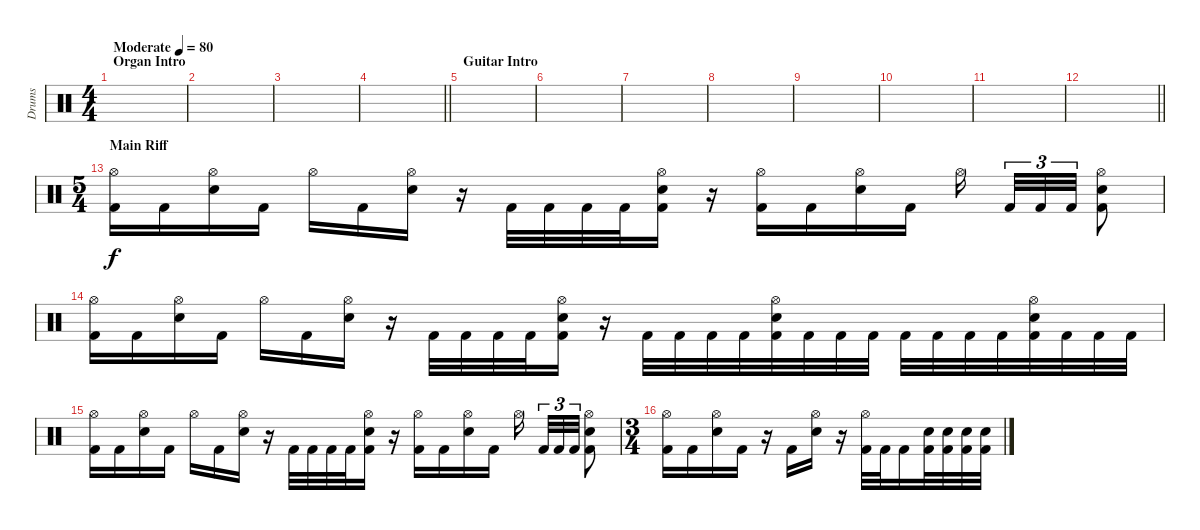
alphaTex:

\track ("Drums" "Drums") {instrument percussion}
\staff {score}
\articulation defaults
\ts (4 4)
\section ("" "Organ Intro")
\tempo (80 "Moderate")
\clef neutral
\ks c
|
|
|
\barLineRight lightlight
|
\section ("" "Guitar Intro")
|
|
|
|
|
|
|
\barLineRight lightlight
|
\ts (5 4)
\section ("" "Main Riff")
("Hi-Hat (open)" "Kick (hit) 2").16 "Kick (hit) 2".16 ("Hi-Hat (open)" "Electric Snare (hit)").16 "Kick (hit) 2".16 "Hi-Hat (open)".16 "Kick (hit) 2".16 ("Hi-Hat (open)" "Electric Snare (hit)").16 r.16 "Kick (hit) 2".32 "Kick (hit) 2".32 "Kick (hit) 2".32 "Kick (hit) 2".32 ("Hi-Hat (open)" "Electric Snare (hit)" "Kick (hit) 2").16 r.16 ("Hi-Hat (open)" "Kick (hit) 2").16 "Kick (hit) 2".16 ("Hi-Hat (open)" "Electric Snare (hit)").16 "Kick (hit) 2".16 "Hi-Hat (open)".16{beam splitsecondary} "Kick (hit) 2".32{tu (3 2)} "Kick (hit) 2".32{tu (3 2)} "Kick (hit) 2".32{tu (3 2)} ("Hi-Hat (open)" "Electric Snare (hit)" "Kick (hit) 2").8 |
("Hi-Hat (open)" "Kick (hit) 2").16 "Kick (hit) 2".16 ("Hi-Hat (open)" "Electric Snare (hit)").16 "Kick (hit) 2".16 "Hi-Hat (open)".16 "Kick (hit) 2".16 ("Hi-Hat (open)" "Electric Snare (hit)").16 r.16 "Kick (hit) 2".32 "Kick (hit) 2".32 "Kick (hit) 2".32 "Kick (hit) 2".32 ("Hi-Hat (open)" "Electric Snare (hit)" "Kick (hit) 2").16 r.16 "Kick (hit) 2".32 "Kick (hit) 2".32 "Kick (hit) 2".32 "Kick (hit) 2".32 ("Hi-Hat (open)" "Electric Snare (hit)" "Kick (hit) 2").32 "Kick (hit) 2".32 "Kick (hit) 2".32 "Kick (hit) 2".32 "Kick (hit) 2".32 "Kick (hit) 2".32 "Kick (hit) 2".32 "Kick (hit) 2".32 ("Hi-Hat (open)" "Electric Snare (hit)" "Kick (hit) 2").32 "Kick (hit) 2".32 "Kick (hit) 2".32 "Kick (hit) 2".32 |
("Hi-Hat (open)" "Kick (hit) 2").16 "Kick (hit) 2".16 ("Hi-Hat (open)" "Electric Snare (hit)").16 "Kick (hit) 2".16 "Hi-Hat (open)".16 "Kick (hit) 2".16 ("Hi-Hat (open)" "Electric Snare (hit)").16 r.16 "Kick (hit) 2".32 "Kick (hit) 2".32 "Kick (hit) 2".32 "Kick (hit) 2".32 ("Hi-Hat (open)" "Electric Snare (hit)" "Kick (hit) 2").16 r.16 ("Hi-Hat (open)" "Kick (hit) 2").16 "Kick (hit) 2".16 ("Hi-Hat (open)" "Electric Snare (hit)").16 "Kick (hit) 2".16 "Hi-Hat (open)".16{beam splitsecondary} "Kick (hit) 2".32{tu (3 2)} "Kick (hit) 2".32{tu (3 2)} "Kick (hit) 2".32{tu (3 2)} ("Hi-Hat (open)" "Electric Snare (hit)" "Kick (hit) 2").8 |
\ts (3 4)
("Hi-Hat (open)" "Kick (hit) 2").16 "Kick (hit) 2".16 ("Hi-Hat (open)" "Electric Snare (hit)").16 "Kick (hit) 2".16 r.16 "Kick (hit) 2".16 ("Hi-Hat (open)" "Electric Snare (hit)").16 r.16 ("Hi-Hat (open)" "Kick (hit) 2").32 "Kick (hit) 2".32 "Kick (hit) 2".16 ("Electric Snare (hit)" "Kick (hit) 2").32 ("Electric Snare (hit)" "Kick (hit) 2").32 ("Electric Snare (hit)" "Kick (hit) 2").32 ("Electric Snare (hit)" "Kick (hit) 2").32
